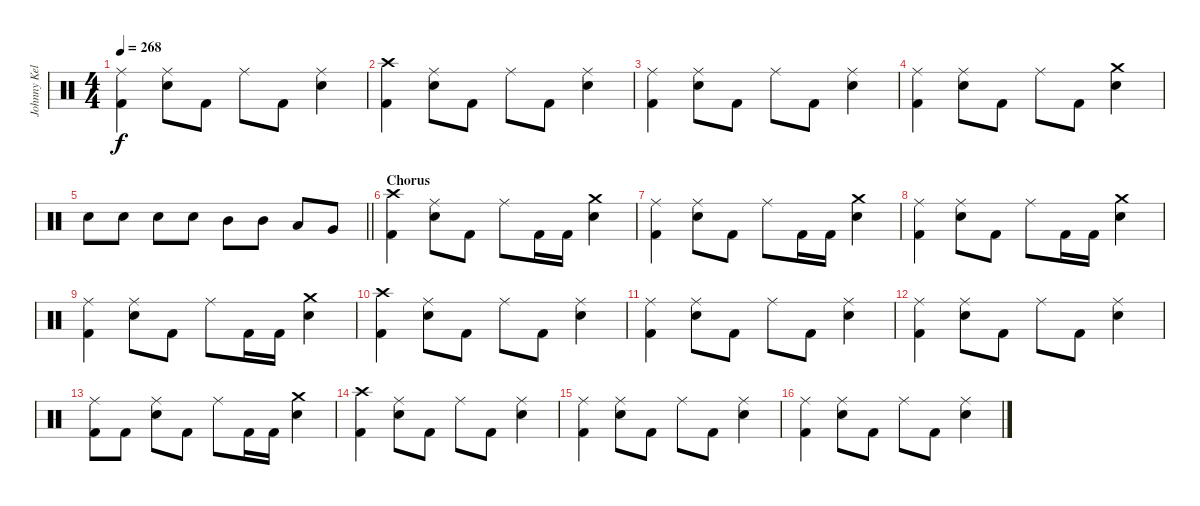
\track ("Johnny Kelly" "Johnny Kel") {instrument percussion}
\staff {score}
\articulation defaults
\ts (4 4)
\tempo 268
\clef neutral
\ks c
("Ride (middle)" "Kick (hit) 2").4{dy f} ("Ride (middle)" "Electric Snare (hit)").8 "Kick (hit) 2".8 "Ride (middle)".8 "Kick (hit) 2".8 ("Ride (middle)" "Electric Snare (hit)").4 |
("Crash high (hit)" "Kick (hit) 2").4 ("Ride (middle)" "Electric Snare (hit)").8 "Kick (hit) 2".8 "Ride (middle)".8 "Kick (hit) 2".8 ("Ride (middle)" "Electric Snare (hit)").4 |
("Ride (middle)" "Kick (hit) 2").4 ("Ride (middle)" "Electric Snare (hit)").8 "Kick (hit) 2".8 "Ride (middle)".8 "Kick (hit) 2".8 ("Ride (middle)" "Electric Snare (hit)").4 |
("Ride (middle)" "Kick (hit) 2").4 ("Ride (middle)" "Electric Snare (hit)").8 "Kick (hit) 2".8 "Ride (middle)".8 "Kick (hit) 2".8 ("Crash medium (hit)" "Electric Snare (hit)").4 |
\barLineRight lightlight "Electric Snare (hit)".8 "Electric Snare (hit)".8 "Electric Snare (hit)".8 "Electric Snare (hit)".8 "Mid Tom (hit)".8 "Mid Tom (hit)".8 "Low Tom (hit)".8 "Very Low Tom (hit)".8
|
\section ("" "Chorus")
("Crash high (hit)" "Kick (hit) 2").4 ("Ride (middle)" "Electric Snare (hit)").8 "Kick (hit) 2".8 "Ride (middle)".8 "Kick (hit) 2".16 "Kick (hit) 2".16 ("Crash medium (hit)" "Electric Snare (hit)").4 |
("Ride (middle)" "Kick (hit) 2").4 ("Ride (middle)" "Electric Snare (hit)").8 "Kick (hit) 2".8 "Ride (middle)".8 "Kick (hit) 2".16 "Kick (hit) 2".16 ("Crash medium (hit)" "Electric Snare (hit)").4 |
("Ride (middle)" "Kick (hit) 2").4 ("Ride (middle)" "Electric Snare (hit)").8 "Kick (hit) 2".8 "Ride (middle)".8 "Kick (hit) 2".16 "Kick (hit) 2".16 ("Crash medium (hit)" "Electric Snare (hit)").4 |
("Ride (middle)" "Kick (hit) 2").4 ("Ride (middle)" "Electric Snare (hit)").8 "Kick (hit) 2".8 "Ride (middle)".8 "Kick (hit) 2".16 "Kick (hit) 2".16 ("Crash medium (hit)" "Electric Snare (hit)").4 |
("Crash high (hit)" "Kick (hit) 2").4 ("Ride (middle)" "Electric Snare (hit)").8 "Kick (hit) 2".8 "Ride (middle)".8 "Kick (hit) 2".8 ("Ride (middle)" "Electric Snare (hit)").4 |
("Ride (middle)" "Kick (hit) 2").4 ("Ride (middle)" "Electric Snare (hit)").8 "Kick (hit) 2".8 "Ride (middle)".8 "Kick (hit) 2".8 ("Ride (middle)" "Electric Snare (hit)").4 |
("Ride (middle)" "Kick (hit) 2").4 ("Ride (middle)" "Electric Snare (hit)").8 "Kick (hit) 2".8 "Ride (middle)".8 "Kick (hit) 2".8 ("Ride (middle)" "Electric Snare (hit)").4 |
("Ride (middle)" "Kick (hit) 2").8 "Kick (hit) 2".8 ("Ride (middle)" "Electric Snare (hit)").8 "Kick (hit) 2".8 "Ride (middle)".8 "Kick (hit) 2".16 "Kick (hit) 2".16 ("Crash medium (hit)" "Electric Snare (hit)").4 |
("Crash high (hit)" "Kick (hit) 2").4 ("Ride (middle)" "Electric Snare (hit)").8 "Kick (hit) 2".8 "Ride (middle)".8 "Kick (hit) 2".8 ("Ride (middle)" "Electric Snare (hit)").4 |
("Ride (middle)" "Kick (hit) 2").4 ("Ride (middle)" "Electric Snare (hit)").8 "Kick (hit) 2".8 "Ride (middle)".8 "Kick (hit) 2".8 ("Ride (middle)" "Electric Snare (hit)").4 |
("Ride (middle)" "Kick (hit) 2").4 ("Ride (middle)" "Electric Snare (hit)").8 "Kick (hit) 2".8 "Ride (middle)".8 "Kick (hit) 2".8 ("Ride (middle)" "Electric Snare (hit)").4
